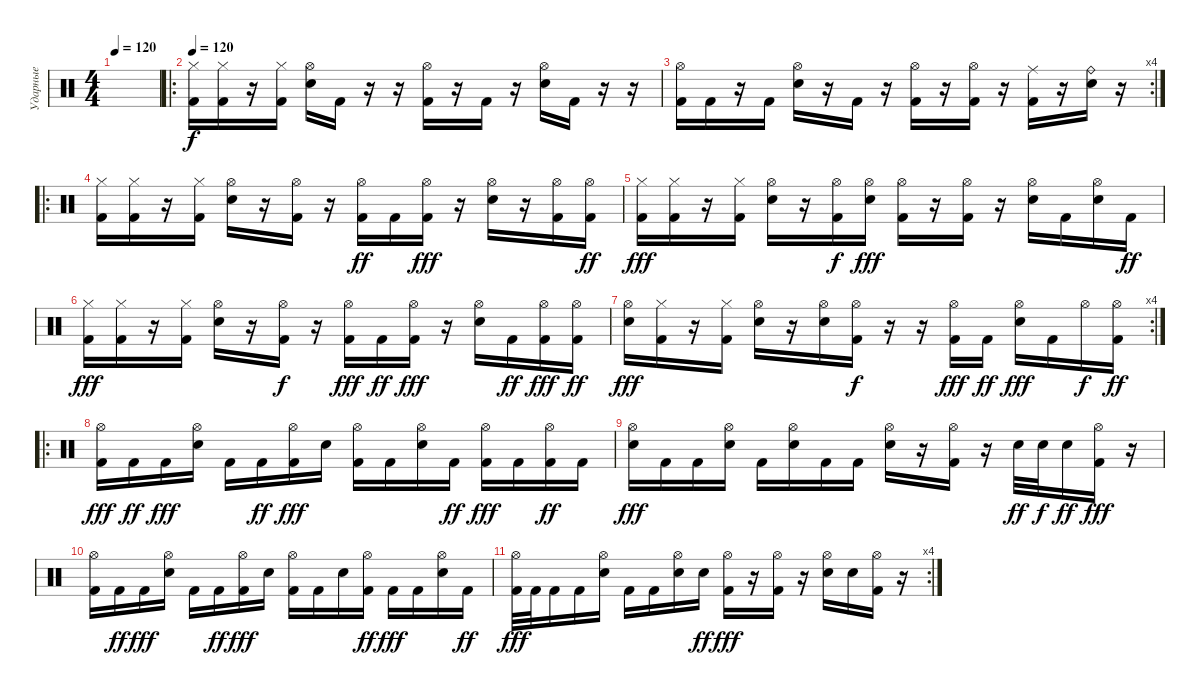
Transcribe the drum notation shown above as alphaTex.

\track ("Ударные" "Ударные") {instrument percussion}
\staff {score}
\articulation defaults
\ts (4 4)
\tempo 120
\clef neutral
\ks c
|
\ro
\tempo 120
("Hi-Hat (closed)" "Kick (hit) 2").16 ("Hi-Hat (closed)" "Kick (hit) 2").16 r.16 ("Hi-Hat (closed)" "Kick (hit) 2").16 ("Hi-Hat (open)" "Electric Snare (hit)").16 "Kick (hit) 2".16 r.16 r.16 ("Hi-Hat (open)" "Kick (hit) 2").16 r.16 "Kick (hit) 2".16 r.16 ("Hi-Hat (open)" "Electric Snare (hit)").16 "Kick (hit) 2".16 r.16 r.16 |
\rc 4
("Hi-Hat (open)" "Kick (hit) 2").16 "Kick (hit) 2".16 r.16 "Kick (hit) 2".16 ("Hi-Hat (open)" "Electric Snare (hit)").16 r.16 "Kick (hit) 2".16 r.16 ("Hi-Hat (open)" "Kick (hit) 2").16 r.16 ("Hi-Hat (open)" "Kick (hit) 2").16 r.16 ("Ride (middle)" "Kick (hit) 2").16 r.16 ("Ride (bell)" "Electric Snare (hit)").16 r.16 |
\ro
("Hi-Hat (closed)" "Kick (hit) 2").16 ("Hi-Hat (closed)" "Kick (hit) 2").16 r.16 ("Hi-Hat (closed)" "Kick (hit) 2").16 ("Hi-Hat (open)" "Electric Snare (hit)").16 r.16 ("Hi-Hat (open)" "Kick (hit) 2").16{dy f} r.16 ("Hi-Hat (open)" "Kick (hit) 2").16{dy ff} "Kick (hit) 2".16 ("Hi-Hat (open)" "Kick (hit) 2").16{dy fff} r.16 ("Hi-Hat (open)" "Electric Snare (hit)").16 r.16 ("Hi-Hat (open)" "Kick (hit) 2").16 ("Hi-Hat (open)" "Kick (hit) 2").16{dy ff} |
("Hi-Hat (closed)" "Kick (hit) 2").16{dy fff} ("Hi-Hat (closed)" "Kick (hit) 2").16 r.16 ("Hi-Hat (closed)" "Kick (hit) 2").16 ("Hi-Hat (open)" "Electric Snare (hit)").16 r.16 ("Hi-Hat (open)" "Kick (hit) 2").16{dy f} ("Hi-Hat (open)" "Electric Snare (hit)").16{dy fff} ("Hi-Hat (open)" "Kick (hit) 2").16 r.16 ("Hi-Hat (open)" "Kick (hit) 2").16 r.16 ("Hi-Hat (open)" "Electric Snare (hit)").16 "Kick (hit) 2".16 ("Hi-Hat (open)" "Electric Snare (hit)").16 "Kick (hit) 2".16{dy ff} |
("Hi-Hat (closed)" "Kick (hit) 2").16{dy fff} ("Hi-Hat (closed)" "Kick (hit) 2").16 r.16 ("Hi-Hat (closed)" "Kick (hit) 2").16 ("Hi-Hat (open)" "Electric Snare (hit)").16 r.16 ("Hi-Hat (open)" "Kick (hit) 2").16{dy f} r.16 ("Hi-Hat (open)" "Kick (hit) 2").16{dy fff} "Kick (hit) 2".16{dy ff} ("Hi-Hat (open)" "Kick (hit) 2").16{dy fff} r.16 ("Hi-Hat (open)" "Electric Snare (hit)").16 "Kick (hit) 2".16{dy ff} ("Hi-Hat (open)" "Kick (hit) 2").16{dy fff} ("Hi-Hat (open)" "Kick (hit) 2").16{dy ff} |
\rc 4
("Hi-Hat (open)" "Electric Snare (hit)").16{dy fff} ("Hi-Hat (closed)" "Kick (hit) 2").16 r.16 ("Hi-Hat (closed)" "Kick (hit) 2").16 ("Hi-Hat (open)" "Electric Snare (hit)").16 r.16 ("Hi-Hat (open)" "Electric Snare (hit)").16 ("Hi-Hat (open)" "Kick (hit) 2").16{dy f} r.16 r.16 ("Hi-Hat (open)" "Kick (hit) 2").16{dy fff} "Kick (hit) 2".16{dy ff} ("Hi-Hat (open)" "Electric Snare (hit)").16{dy fff} "Kick (hit) 2".16 "Hi-Hat (open)".16{dy f} ("Hi-Hat (open)" "Kick (hit) 2").16{dy ff} |
\ro
("Hi-Hat (open)" "Kick (hit) 2").16{dy fff} "Kick (hit) 2".16{dy ff} "Kick (hit) 2".16{dy fff} ("Hi-Hat (open)" "Electric Snare (hit)").16 "Kick (hit) 2".16 "Kick (hit) 2".16{dy ff} ("Hi-Hat (open)" "Kick (hit) 2").16{dy fff} "Electric Snare (hit)".16 ("Hi-Hat (open)" "Kick (hit) 2").16 "Kick (hit) 2".16 ("Hi-Hat (open)" "Electric Snare (hit)").16 "Kick (hit) 2".16{dy ff} ("Hi-Hat (open)" "Kick (hit) 2").16{dy fff} "Kick (hit) 2".16 ("Hi-Hat (open)" "Kick (hit) 2").16{dy ff} "Kick (hit) 2".16 |
("Hi-Hat (open)" "Electric Snare (hit)").16{dy fff} "Kick (hit) 2".16 "Kick (hit) 2".16 ("Hi-Hat (open)" "Electric Snare (hit)").16 "Kick (hit) 2".16 ("Hi-Hat (open)" "Electric Snare (hit)").16 "Kick (hit) 2".16 "Kick (hit) 2".16 ("Hi-Hat (open)" "Electric Snare (hit)").16 r.16 ("Hi-Hat (open)" "Kick (hit) 2").16 r.16 "Electric Snare (hit)".32{dy ff} "Electric Snare (hit)".32{dy f} "Electric Snare (hit)".16{dy ff} ("Hi-Hat (open)" "Kick (hit) 2").16{dy fff} r.16 |
("Hi-Hat (open)" "Kick (hit) 2").16 "Kick (hit) 2".16{dy ff} "Kick (hit) 2".16{dy fff} ("Hi-Hat (open)" "Electric Snare (hit)").16 "Kick (hit) 2".16 "Kick (hit) 2".16{dy ff} ("Hi-Hat (open)" "Kick (hit) 2").16{dy fff} "Electric Snare (hit)".16 ("Hi-Hat (open)" "Kick (hit) 2").16 "Kick (hit) 2".16 "Electric Snare (hit)".16 ("Hi-Hat (open)" "Kick (hit) 2").16{dy ff} "Kick (hit) 2".16{dy fff} "Kick (hit) 2".16 ("Hi-Hat (open)" "Electric Snare (hit)").16 "Kick (hit) 2".16{dy ff} |
\rc 4
("Hi-Hat (open)" "Kick (hit) 2").32{dy fff} "Kick (hit) 2".32 "Kick (hit) 2".16 "Kick (hit) 2".16 ("Hi-Hat (open)" "Electric Snare (hit)").16 "Kick (hit) 2".16 "Kick (hit) 2".16 ("Hi-Hat (open)" "Electric Snare (hit)").16 "Electric Snare (hit)".16{dy ff} ("Hi-Hat (open)" "Kick (hit) 2").16{dy fff} r.16 ("Hi-Hat (open)" "Kick (hit) 2").16 r.16 ("Hi-Hat (open)" "Electric Snare (hit)").16 "Electric Snare (hit)".16 ("Hi-Hat (open)" "Kick (hit) 2").16 r.16
